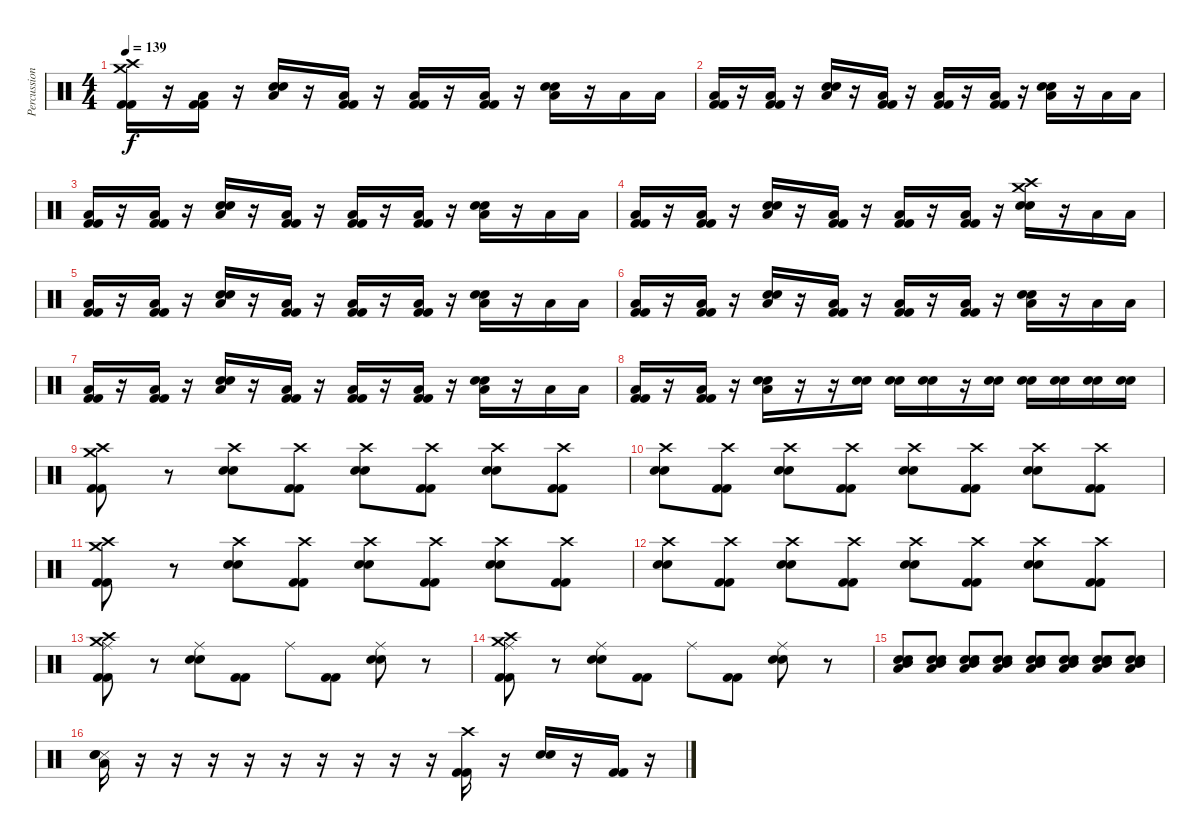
\track ("Percussioni" "Percussion") {instrument percussion}
\staff {score}
\articulation defaults
\ts (4 4)
\tempo 139
\clef neutral
\ks c
("Crash high (hit)" "Crash medium (hit)" "Kick (hit) 2" "Kick (hit) 2").16{dy f} r.16 ("Low Tom (hit)" "Kick (hit) 2" "Kick (hit) 2").16 r.16 ("Low Tom (hit)" "Snare (hit) 2" "Electric Snare (hit)").16 r.16 ("Low Tom (hit)" "Kick (hit) 2" "Kick (hit) 2").16 r.16 ("Low Tom (hit)" "Kick (hit) 2" "Kick (hit) 2").16 r.16 ("Low Tom (hit)" "Kick (hit) 2" "Kick (hit) 2").16 r.16 ("Low Tom (hit)" "Snare (hit) 2" "Electric Snare (hit)").16 r.16 "Low Tom (hit)".16 "Low Tom (hit)".16 |
("Low Tom (hit)" "Kick (hit) 2" "Kick (hit) 2").16 r.16 ("Low Tom (hit)" "Kick (hit) 2" "Kick (hit) 2").16 r.16 ("Low Tom (hit)" "Snare (hit) 2" "Electric Snare (hit)").16 r.16 ("Low Tom (hit)" "Kick (hit) 2" "Kick (hit) 2").16 r.16 ("Low Tom (hit)" "Kick (hit) 2" "Kick (hit) 2").16 r.16 ("Low Tom (hit)" "Kick (hit) 2" "Kick (hit) 2").16 r.16 ("Low Tom (hit)" "Snare (hit) 2" "Electric Snare (hit)").16 r.16 "Low Tom (hit)".16 "Low Tom (hit)".16 |
("Low Tom (hit)" "Kick (hit) 2" "Kick (hit) 2").16 r.16 ("Low Tom (hit)" "Kick (hit) 2" "Kick (hit) 2").16 r.16 ("Low Tom (hit)" "Snare (hit) 2" "Electric Snare (hit)").16 r.16 ("Low Tom (hit)" "Kick (hit) 2" "Kick (hit) 2").16 r.16 ("Low Tom (hit)" "Kick (hit) 2" "Kick (hit) 2").16 r.16 ("Low Tom (hit)" "Kick (hit) 2" "Kick (hit) 2").16 r.16 ("Low Tom (hit)" "Snare (hit) 2" "Electric Snare (hit)").16 r.16 "Low Tom (hit)".16 "Low Tom (hit)".16 |
("Low Tom (hit)" "Kick (hit) 2" "Kick (hit) 2").16 r.16 ("Low Tom (hit)" "Kick (hit) 2" "Kick (hit) 2").16 r.16 ("Low Tom (hit)" "Snare (hit) 2" "Electric Snare (hit)").16 r.16 ("Low Tom (hit)" "Kick (hit) 2" "Kick (hit) 2").16 r.16 ("Low Tom (hit)" "Kick (hit) 2" "Kick (hit) 2").16 r.16 ("Low Tom (hit)" "Kick (hit) 2" "Kick (hit) 2").16 r.16 ("Crash high (hit)" "Crash medium (hit)" "Snare (hit) 2" "Electric Snare (hit)").16 r.16 "Low Tom (hit)".16 "Low Tom (hit)".16 |
("Low Tom (hit)" "Kick (hit) 2" "Kick (hit) 2").16 r.16 ("Low Tom (hit)" "Kick (hit) 2" "Kick (hit) 2").16 r.16 ("Low Tom (hit)" "Snare (hit) 2" "Electric Snare (hit)").16 r.16 ("Low Tom (hit)" "Kick (hit) 2" "Kick (hit) 2").16 r.16 ("Low Tom (hit)" "Kick (hit) 2" "Kick (hit) 2").16 r.16 ("Low Tom (hit)" "Kick (hit) 2" "Kick (hit) 2").16 r.16 ("Low Tom (hit)" "Snare (hit) 2" "Electric Snare (hit)").16 r.16 "Low Tom (hit)".16 "Low Tom (hit)".16 |
("Low Tom (hit)" "Kick (hit) 2" "Kick (hit) 2").16 r.16 ("Low Tom (hit)" "Kick (hit) 2" "Kick (hit) 2").16 r.16 ("Low Tom (hit)" "Snare (hit) 2" "Electric Snare (hit)").16 r.16 ("Low Tom (hit)" "Kick (hit) 2" "Kick (hit) 2").16 r.16 ("Low Tom (hit)" "Kick (hit) 2" "Kick (hit) 2").16 r.16 ("Low Tom (hit)" "Kick (hit) 2" "Kick (hit) 2").16 r.16 ("Low Tom (hit)" "Snare (hit) 2" "Electric Snare (hit)").16 r.16 "Low Tom (hit)".16 "Low Tom (hit)".16 |
("Low Tom (hit)" "Kick (hit) 2" "Kick (hit) 2").16 r.16 ("Low Tom (hit)" "Kick (hit) 2" "Kick (hit) 2").16 r.16 ("Low Tom (hit)" "Snare (hit) 2" "Electric Snare (hit)").16 r.16 ("Low Tom (hit)" "Kick (hit) 2" "Kick (hit) 2").16 r.16 ("Low Tom (hit)" "Kick (hit) 2" "Kick (hit) 2").16 r.16 ("Low Tom (hit)" "Kick (hit) 2" "Kick (hit) 2").16 r.16 ("Low Tom (hit)" "Snare (hit) 2" "Electric Snare (hit)").16 r.16 "Low Tom (hit)".16 "Low Tom (hit)".16 |
("Low Tom (hit)" "Kick (hit) 2" "Kick (hit) 2").16 r.16 ("Low Tom (hit)" "Kick (hit) 2" "Kick (hit) 2").16 r.16 ("Low Tom (hit)" "Snare (hit) 2" "Electric Snare (hit)").16 r.16 r.16 ("Snare (hit) 2" "Electric Snare (hit)").16 ("Snare (hit) 2" "Electric Snare (hit)").16 ("Snare (hit) 2" "Electric Snare (hit)").16 r.16 ("Snare (hit) 2" "Electric Snare (hit)").16 ("Snare (hit) 2" "Electric Snare (hit)").16 ("Snare (hit) 2" "Electric Snare (hit)").16 ("Snare (hit) 2" "Electric Snare (hit)").16 ("Snare (hit) 2" "Electric Snare (hit)").16 |
("Crash medium (hit)" "Crash high (hit)" "Kick (hit) 2" "Kick (hit) 2").8 r.8 ("Crash high (hit)" "Electric Snare (hit)" "Snare (hit) 2").8 ("Crash high (hit)" "Kick (hit) 2" "Kick (hit) 2").8 ("Crash high (hit)" "Electric Snare (hit)" "Snare (hit) 2").8 ("Crash high (hit)" "Kick (hit) 2" "Kick (hit) 2").8 ("Crash high (hit)" "Electric Snare (hit)" "Snare (hit) 2").8 ("Crash high (hit)" "Kick (hit) 2" "Kick (hit) 2").8 |
("Crash high (hit)" "Electric Snare (hit)" "Snare (hit) 2").8 ("Crash high (hit)" "Kick (hit) 2" "Kick (hit) 2").8 ("Crash high (hit)" "Electric Snare (hit)" "Snare (hit) 2").8 ("Crash high (hit)" "Kick (hit) 2" "Kick (hit) 2").8 ("Crash high (hit)" "Electric Snare (hit)" "Snare (hit) 2").8 ("Crash high (hit)" "Kick (hit) 2" "Kick (hit) 2").8 ("Crash high (hit)" "Electric Snare (hit)" "Snare (hit) 2").8 ("Crash high (hit)" "Kick (hit) 2" "Kick (hit) 2").8 |
("Crash medium (hit)" "Crash high (hit)" "Kick (hit) 2" "Kick (hit) 2").8 r.8 ("Crash high (hit)" "Electric Snare (hit)" "Snare (hit) 2").8 ("Crash high (hit)" "Kick (hit) 2" "Kick (hit) 2").8 ("Crash high (hit)" "Electric Snare (hit)" "Snare (hit) 2").8 ("Crash high (hit)" "Kick (hit) 2" "Kick (hit) 2").8 ("Crash high (hit)" "Electric Snare (hit)" "Snare (hit) 2").8 ("Crash high (hit)" "Kick (hit) 2" "Kick (hit) 2").8 |
("Crash high (hit)" "Electric Snare (hit)" "Snare (hit) 2").8 ("Crash high (hit)" "Kick (hit) 2" "Kick (hit) 2").8 ("Crash high (hit)" "Electric Snare (hit)" "Snare (hit) 2").8 ("Crash high (hit)" "Kick (hit) 2" "Kick (hit) 2").8 ("Crash high (hit)" "Electric Snare (hit)" "Snare (hit) 2").8 ("Crash high (hit)" "Kick (hit) 2" "Kick (hit) 2").8 ("Crash high (hit)" "Electric Snare (hit)" "Snare (hit) 2").8 ("Crash high (hit)" "Kick (hit) 2" "Kick (hit) 2").8 |
("Ride (middle)" "Crash medium (hit)" "Crash high (hit)" "Kick (hit) 2" "Kick (hit) 2").8 r.8 ("Ride (middle)" "Electric Snare (hit)" "Snare (hit) 2").8 ("Kick (hit) 2" "Kick (hit) 2").8 "Ride (middle)".8 ("Kick (hit) 2" "Kick (hit) 2").8 ("Ride (middle)" "Electric Snare (hit)" "Snare (hit) 2").8 r.8 |
("Ride (middle)" "Crash medium (hit)" "Crash high (hit)" "Kick (hit) 2" "Kick (hit) 2").8 r.8 ("Ride (middle)" "Electric Snare (hit)" "Snare (hit) 2").8 ("Kick (hit) 2" "Kick (hit) 2").8 "Ride (middle)".8 ("Kick (hit) 2" "Kick (hit) 2").8 ("Ride (middle)" "Electric Snare (hit)" "Snare (hit) 2").8 r.8 |
("Mid Tom (hit)" "Low Tom (hit)" "Electric Snare (hit)" "Snare (hit) 2").8 ("Mid Tom (hit)" "Low Tom (hit)" "Electric Snare (hit)" "Snare (hit) 2").8 ("Mid Tom (hit)" "Low Tom (hit)" "Electric Snare (hit)" "Snare (hit) 2").8 ("Mid Tom (hit)" "Low Tom (hit)" "Electric Snare (hit)" "Snare (hit) 2").8 ("Mid Tom (hit)" "Low Tom (hit)" "Electric Snare (hit)" "Snare (hit) 2").8 ("Mid Tom (hit)" "Low Tom (hit)" "Electric Snare (hit)" "Snare (hit) 2").8 ("Mid Tom (hit)" "Low Tom (hit)" "Electric Snare (hit)" "Snare (hit) 2").8 ("Mid Tom (hit)" "Low Tom (hit)" "Electric Snare (hit)" "Snare (hit) 2").8 |
("Snare (side stick) 3" "Low Tom (hit)" "Snare (hit) 2" "Electric Snare (hit)").16 r.16 r.16 r.16 r.16 r.16 r.16 r.16 r.16 r.16 ("Crash high (hit)" "Kick (hit) 2" "Kick (hit) 2").16 r.16 ("Snare (hit) 2" "Electric Snare (hit)").16 r.16 ("Kick (hit) 2" "Kick (hit) 2").16 r.16
